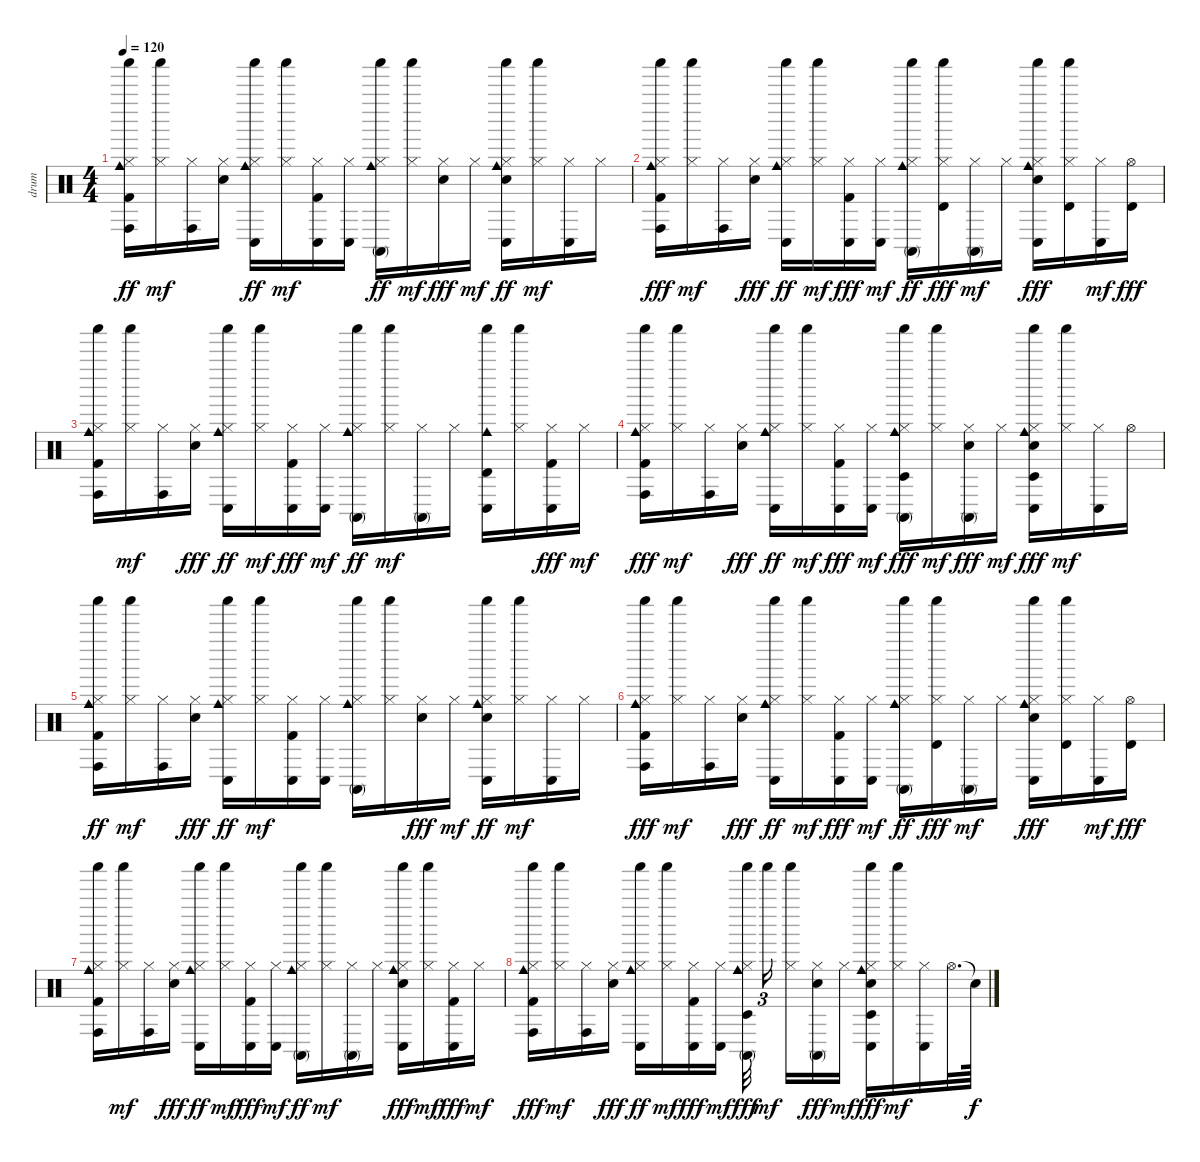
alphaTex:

\track ("drum" "drum") {instrument percussion}
\staff {score}
\articulation defaults
\ts (4 4)
\tempo 120
\clef neutral
\ks c
("Conga high (hit)" "Shaker (hit)" "Cowbell medium (hit)" "Kick (hit) 2" "Hi-Hat (closed)").16{dy ff} ("Shaker (hit)" "Hi-Hat (closed)").16{dy mf} ("Conga high (hit)" "Hi-Hat (closed)").16 ("Electric Snare (hit)" "Hi-Hat (closed)").16 ("Conga low (hit)" "Cowbell medium (hit)" "Shaker (hit)" "Hi-Hat (closed)").16{dy ff} ("Shaker (hit)" "Hi-Hat (closed)").16{dy mf} ("Conga low (hit)" "Kick (hit) 2" "Hi-Hat (closed)").16 ("Conga low (hit)" "Hi-Hat (closed)").16 ("Conga high (mute)" "Shaker (hit)" "Cowbell medium (hit)" "Hi-Hat (closed)").16{dy ff} ("Shaker (hit)" "Hi-Hat (closed)").16{dy mf} ("Hi-Hat (closed)" "Electric Snare (hit)").16{dy fff} "Hi-Hat (closed)".16{dy mf} ("Conga low (hit)" "Shaker (hit)" "Cowbell medium (hit)" "Electric Snare (hit)" "Hi-Hat (closed)").16{dy ff} ("Shaker (hit)" "Hi-Hat (closed)").16{dy mf} ("Conga low (hit)" "Hi-Hat (closed)").16 "Hi-Hat (closed)".16 |
("Conga high (hit)" "Shaker (hit)" "Cowbell medium (hit)" "Hi-Hat (closed)" "Kick (hit) 2").16{dy fff} ("Shaker (hit)" "Hi-Hat (closed)").16{dy mf} ("Conga high (hit)" "Hi-Hat (closed)").16 ("Hi-Hat (closed)" "Electric Snare (hit)").16{dy fff} ("Conga low (hit)" "Cowbell medium (hit)" "Shaker (hit)" "Hi-Hat (closed)").16{dy ff} ("Hi-Hat (closed)" "Shaker (hit)").16{dy mf} ("Conga low (hit)" "Hi-Hat (closed)" "Kick (hit) 2").16{dy fff} ("Conga low (hit)" "Hi-Hat (closed)").16{dy mf} ("Conga high (mute)" "Cowbell medium (hit)" "Shaker (hit)" "Hi-Hat (closed)").16{dy ff} ("Shaker (hit)" "Hi-Hat (closed)" "Timbale high (hit)").16{dy fff} ("Conga high (mute)" "Hi-Hat (closed)").16{dy mf} "Hi-Hat (closed)".16 ("Conga low (hit)" "Shaker (hit)" "Cowbell medium (hit)" "Hi-Hat (closed)" "Electric Snare (hit)").16{dy fff} ("Shaker (hit)" "Hi-Hat (closed)" "Timbale high (hit)").16 ("Conga low (hit)" "Hi-Hat (closed)").16{dy mf} ("Hi-Hat (open)" "Timbale high (hit)").16{dy fff} |
("Conga high (hit)" "Shaker (hit)" "Cowbell medium (hit)" "Hi-Hat (closed)" "Kick (hit) 2").16 ("Shaker (hit)" "Hi-Hat (closed)").16{dy mf} ("Conga high (hit)" "Hi-Hat (closed)").16 ("Hi-Hat (closed)" "Electric Snare (hit)").16{dy fff} ("Conga low (hit)" "Cowbell medium (hit)" "Shaker (hit)" "Hi-Hat (closed)").16{dy ff} ("Shaker (hit)" "Hi-Hat (closed)").16{dy mf} ("Conga low (hit)" "Hi-Hat (closed)" "Kick (hit) 2").16{dy fff} ("Conga low (hit)" "Hi-Hat (closed)").16{dy mf} ("Conga high (mute)" "Cowbell medium (hit)" "Shaker (hit)" "Hi-Hat (closed)").16{dy ff} ("Shaker (hit)" "Hi-Hat (closed)").16{dy mf} ("Hi-Hat (closed)" "Conga high (mute)").16 "Hi-Hat (closed)".16 ("Conga low (hit)" "Cowbell medium (hit)" "Shaker (hit)" "Timbale high (hit)").16 ("Shaker (hit)" "Hi-Hat (closed)").16 ("Conga low (hit)" "Hi-Hat (closed)" "Kick (hit) 2").16{dy fff} "Hi-Hat (closed)".16{dy mf} |
("Conga high (hit)" "Cowbell medium (hit)" "Shaker (hit)" "Hi-Hat (closed)" "Kick (hit) 2").16{dy fff} ("Shaker (hit)" "Hi-Hat (closed)").16{dy mf} ("Conga high (hit)" "Hi-Hat (closed)").16 ("Hi-Hat (closed)" "Electric Snare (hit)").16{dy fff} ("Conga low (hit)" "Cowbell medium (hit)" "Shaker (hit)" "Hi-Hat (closed)").16{dy ff} ("Shaker (hit)" "Hi-Hat (closed)").16{dy mf} ("Conga low (hit)" "Hi-Hat (closed)" "Kick (hit) 2").16{dy fff} ("Conga low (hit)" "Hi-Hat (closed)").16{dy mf} ("Conga high (mute)" "Cowbell medium (hit)" "Hi-Hat (closed)" "Shaker (hit)" "Timbale low (hit)").16{dy fff} ("Shaker (hit)" "Hi-Hat (closed)").16{dy mf} ("Conga high (mute)" "Hi-Hat (closed)" "Electric Snare (hit)").16{dy fff} "Hi-Hat (closed)".16{dy mf} ("Conga low (hit)" "Hi-Hat (closed)" "Shaker (hit)" "Cowbell medium (hit)" "Electric Snare (hit)" "Timbale low (hit)").16{dy fff} ("Shaker (hit)" "Hi-Hat (closed)").16{dy mf} ("Conga low (hit)" "Hi-Hat (closed)").16 "Hi-Hat (open)".16 |
("Conga high (hit)" "Shaker (hit)" "Cowbell medium (hit)" "Kick (hit) 2" "Hi-Hat (closed)").16{dy ff} ("Hi-Hat (closed)" "Shaker (hit)").16{dy mf} ("Hi-Hat (closed)" "Conga high (hit)").16 ("Hi-Hat (closed)" "Electric Snare (hit)").16{dy fff} ("Conga low (hit)" "Cowbell medium (hit)" "Shaker (hit)" "Hi-Hat (closed)").16{dy ff} ("Shaker (hit)" "Hi-Hat (closed)").16{dy mf} ("Kick (hit) 2" "Conga low (hit)" "Hi-Hat (closed)").16 ("Conga low (hit)" "Hi-Hat (closed)").16 ("Conga high (mute)" "Cowbell medium (hit)" "Hi-Hat (closed)" "Shaker (hit)").16 ("Shaker (hit)" "Hi-Hat (closed)").16 ("Hi-Hat (closed)" "Electric Snare (hit)").16{dy fff} "Hi-Hat (closed)".16{dy mf} ("Conga low (hit)" "Shaker (hit)" "Cowbell medium (hit)" "Electric Snare (hit)" "Hi-Hat (closed)").16{dy ff} ("Shaker (hit)" "Hi-Hat (closed)").16{dy mf} ("Conga low (hit)" "Hi-Hat (closed)").16 "Hi-Hat (closed)".16 |
("Conga high (hit)" "Shaker (hit)" "Cowbell medium (hit)" "Hi-Hat (closed)" "Kick (hit) 2").16{dy fff} ("Shaker (hit)" "Hi-Hat (closed)").16{dy mf} ("Conga high (hit)" "Hi-Hat (closed)").16 ("Hi-Hat (closed)" "Electric Snare (hit)").16{dy fff} ("Conga low (hit)" "Shaker (hit)" "Cowbell medium (hit)" "Hi-Hat (closed)").16{dy ff} ("Shaker (hit)" "Hi-Hat (closed)").16{dy mf} ("Conga low (hit)" "Hi-Hat (closed)" "Kick (hit) 2").16{dy fff} ("Conga low (hit)" "Hi-Hat (closed)").16{dy mf} ("Conga high (mute)" "Cowbell medium (hit)" "Shaker (hit)" "Hi-Hat (closed)").16{dy ff} ("Shaker (hit)" "Hi-Hat (closed)" "Timbale high (hit)").16{dy fff} ("Conga high (mute)" "Hi-Hat (closed)").16{dy mf} "Hi-Hat (closed)".16 ("Conga low (hit)" "Cowbell medium (hit)" "Shaker (hit)" "Hi-Hat (closed)" "Electric Snare (hit)").16{dy fff} ("Shaker (hit)" "Hi-Hat (closed)" "Timbale high (hit)").16 ("Conga low (hit)" "Hi-Hat (closed)").16{dy mf} ("Hi-Hat (open)" "Timbale high (hit)").16{dy fff} |
("Conga high (hit)" "Shaker (hit)" "Cowbell medium (hit)" "Hi-Hat (closed)" "Kick (hit) 2").16 ("Shaker (hit)" "Hi-Hat (closed)").16{dy mf} ("Conga high (hit)" "Hi-Hat (closed)").16 ("Hi-Hat (closed)" "Electric Snare (hit)").16{dy fff} ("Conga low (hit)" "Cowbell medium (hit)" "Shaker (hit)" "Hi-Hat (closed)").16{dy ff} ("Shaker (hit)" "Hi-Hat (closed)").16{dy mf} ("Conga low (hit)" "Hi-Hat (closed)" "Kick (hit) 2").16{dy fff} ("Conga low (hit)" "Hi-Hat (closed)").16{dy mf} ("Conga high (mute)" "Shaker (hit)" "Cowbell medium (hit)" "Hi-Hat (closed)").16{dy ff} ("Shaker (hit)" "Hi-Hat (closed)").16{dy mf} ("Conga high (mute)" "Hi-Hat (closed)").16 "Hi-Hat (closed)".16 ("Conga low (hit)" "Cowbell medium (hit)" "Shaker (hit)" "Hi-Hat (closed)" "Electric Snare (hit)").16{dy fff} ("Shaker (hit)" "Hi-Hat (closed)").16{dy mf} ("Conga low (hit)" "Hi-Hat (closed)" "Kick (hit) 2").16{dy fff} "Hi-Hat (closed)".16{dy mf} |
("Conga high (hit)" "Cowbell medium (hit)" "Shaker (hit)" "Hi-Hat (closed)" "Kick (hit) 2").16{dy fff} ("Shaker (hit)" "Hi-Hat (closed)").16{dy mf} ("Conga high (hit)" "Hi-Hat (closed)").16 ("Hi-Hat (closed)" "Electric Snare (hit)").16{dy fff} ("Conga low (hit)" "Shaker (hit)" "Cowbell medium (hit)" "Hi-Hat (closed)").16{dy ff} ("Shaker (hit)" "Hi-Hat (closed)").16{dy mf} ("Conga low (hit)" "Hi-Hat (closed)" "Kick (hit) 2").16{dy fff} ("Conga low (hit)" "Hi-Hat (closed)").16{dy mf} ("Conga high (mute)" "Cowbell medium (hit)" "Shaker (hit)" "Hi-Hat (closed)" "Timbale low (hit)").32{dy fff beam splitsecondary} "Shaker (hit)".16{tu (3 2) dy mf beam splitsecondary} ("Shaker (hit)" "Hi-Hat (closed)").16 ("Conga high (mute)" "Hi-Hat (closed)" "Electric Snare (hit)").16{dy fff} "Hi-Hat (closed)".16{dy mf} ("Conga low (hit)" "Hi-Hat (closed)" "Shaker (hit)" "Cowbell medium (hit)" "Electric Snare (hit)" "Timbale low (hit)").16{dy fff} ("Shaker (hit)" "Hi-Hat (closed)").16{dy mf} ("Conga low (hit)" "Hi-Hat (closed)").16 "Hi-Hat (open)".32{d} "Snare (hit)"{t}.64{dy f}
